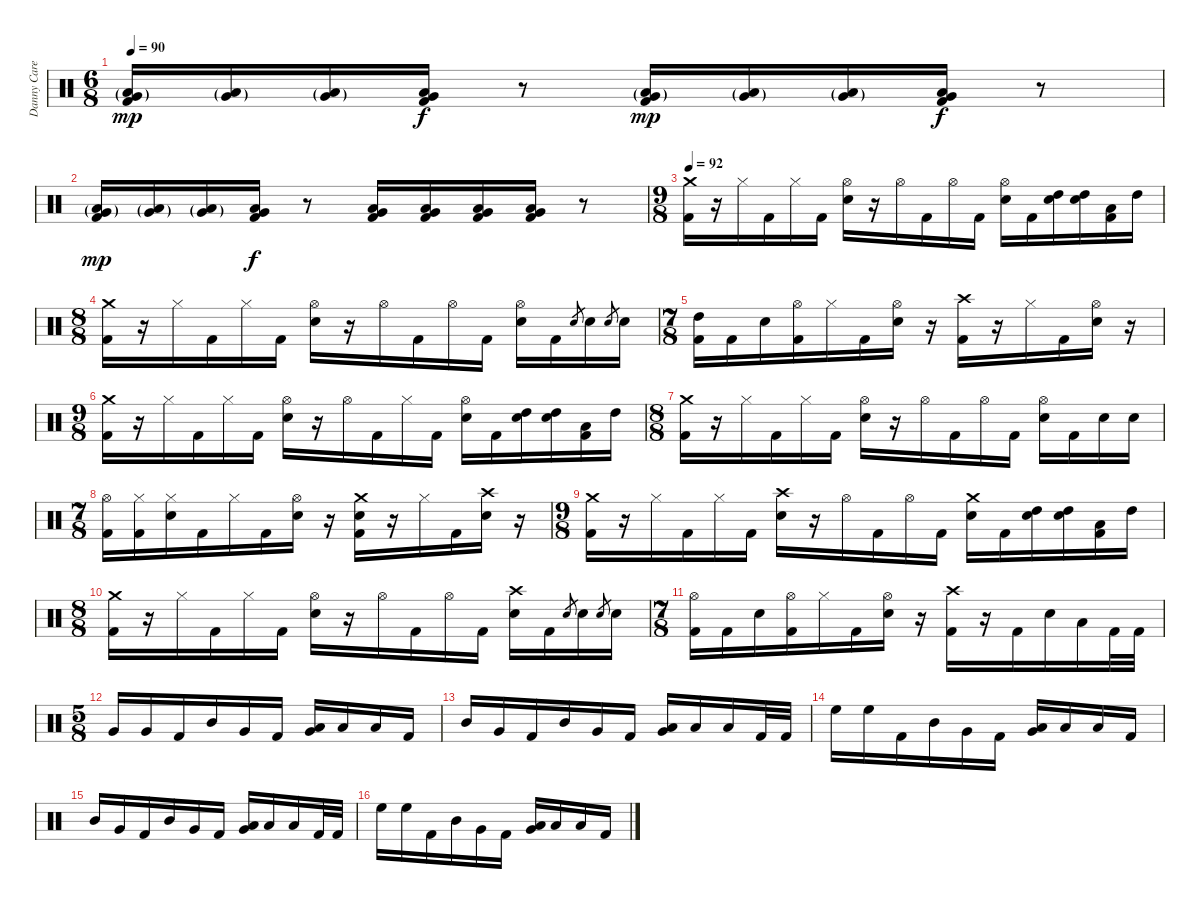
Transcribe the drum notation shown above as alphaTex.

\track ("Danny Carey" "Danny Care") {instrument percussion}
\staff {score}
\articulation defaults
\ts (6 8)
\tempo 90
\clef neutral
\ks c
("Very Low Tom (hit)"{g} "Low Floor Tom (hit)"{g} "Kick (hit) 2").16{dy mp} ("Very Low Tom (hit)"{g} "Low Floor Tom (hit)"{g}).16 ("Very Low Tom (hit)"{g} "Low Floor Tom (hit)"{g}).16 ("Very Low Tom (hit)" "Low Floor Tom (hit)" "Kick (hit) 2").16{dy f} r.8 ("Very Low Tom (hit)"{g} "Low Floor Tom (hit)"{g} "Kick (hit) 2").16{dy mp} ("Very Low Tom (hit)"{g} "Low Floor Tom (hit)"{g}).16 ("Very Low Tom (hit)"{g} "Low Floor Tom (hit)"{g}).16 ("Very Low Tom (hit)" "Low Floor Tom (hit)" "Kick (hit) 2").16{dy f} r.8 |
("Very Low Tom (hit)"{g} "Low Floor Tom (hit)"{g} "Kick (hit) 2").16{dy mp} ("Very Low Tom (hit)"{g} "Low Floor Tom (hit)"{g}).16 ("Very Low Tom (hit)"{g} "Low Floor Tom (hit)"{g}).16 ("Very Low Tom (hit)" "Low Floor Tom (hit)" "Kick (hit) 2").16{dy f} r.8{volume 16} ("Very Low Tom (hit)" "Low Floor Tom (hit)" "Kick (hit) 2").16 ("Very Low Tom (hit)" "Low Floor Tom (hit)" "Kick (hit) 2").16 ("Very Low Tom (hit)" "Low Floor Tom (hit)" "Kick (hit) 2").16 ("Very Low Tom (hit)" "Low Floor Tom (hit)" "Kick (hit) 2").16 r.8 |
\ts (9 8)
\tempo 88
\tempo 90
\tempo 92
("Crash medium (hit)" "Kick (hit) 2").16 r.16 "Hi-Hat (closed)".16 "Kick (hit) 2".16 "Hi-Hat (closed)".16 "Kick (hit) 2".16 ("Hi-Hat (open)" "Electric Snare (hit)").16 r.16 "Hi-Hat (open)".16 "Kick (hit) 2".16 "Hi-Hat (open)".16 "Kick (hit) 2".16 ("Hi-Hat (open)" "Electric Snare (hit)").16 "Kick (hit) 2".16 ("High Tom (hit)" "Electric Snare (hit)").16 ("High Tom (hit)" "Electric Snare (hit)").16 ("Low Tom (hit)" "Kick (hit) 2").16 "High Tom (hit)".16 |
\ts (8 8)
("Crash medium (hit)" "Kick (hit) 2").16 r.16 "Hi-Hat (closed)".16 "Kick (hit) 2".16 "Hi-Hat (closed)".16 "Kick (hit) 2".16 ("Hi-Hat (open)" "Electric Snare (hit)").16 r.16 "Hi-Hat (open)".16 "Kick (hit) 2".16 "Hi-Hat (open)".16 "Kick (hit) 2".16 ("Hi-Hat (open)" "Electric Snare (hit)").16 "Kick (hit) 2".16 "Electric Snare (hit)".8{gr} "Electric Snare (hit)".16 "Electric Snare (hit)".8{gr} "Electric Snare (hit)".16 |
\ts (7 8)
("High Tom (hit)" "Kick (hit) 2").16 "Kick (hit) 2".16 "Electric Snare (hit)".16 ("Hi-Hat (open)" "Kick (hit) 2").16 "Hi-Hat (closed)".16 "Kick (hit) 2".16 ("Hi-Hat (open)" "Electric Snare (hit)").16 r.16 ("Crash high (hit)" "Kick (hit) 2").16 r.16 "Hi-Hat (closed)".16 "Kick (hit) 2".16 ("Hi-Hat (open)" "Electric Snare (hit)").16 r.16 |
\ts (9 8)
("Crash medium (hit)" "Kick (hit) 2").16 r.16 "Hi-Hat (closed)".16 "Kick (hit) 2".16 "Hi-Hat (closed)".16 "Kick (hit) 2".16 ("Hi-Hat (open)" "Electric Snare (hit)").16 r.16 "Hi-Hat (open)".16 "Kick (hit) 2".16 "Hi-Hat (closed)".16 "Kick (hit) 2".16 ("Hi-Hat (open)" "Electric Snare (hit)").16 "Kick (hit) 2".16 ("High Tom (hit)" "Electric Snare (hit)").16 ("High Tom (hit)" "Electric Snare (hit)").16 ("Low Tom (hit)" "Kick (hit) 2").16 "High Tom (hit)".16 |
\ts (8 8)
("Crash medium (hit)" "Kick (hit) 2").16 r.16 "Hi-Hat (closed)".16 "Kick (hit) 2".16 "Hi-Hat (closed)".16 "Kick (hit) 2".16 ("Hi-Hat (open)" "Electric Snare (hit)").16 r.16 "Hi-Hat (open)".16 "Kick (hit) 2".16 "Hi-Hat (open)".16 "Kick (hit) 2".16 ("Hi-Hat (open)" "Electric Snare (hit)").16 "Kick (hit) 2".16 "Electric Snare (hit)".16 "Electric Snare (hit)".16 |
\ts (7 8)
("Hi-Hat (open)" "Kick (hit) 2").16 ("Hi-Hat (closed)" "Kick (hit) 2").16 ("Hi-Hat (closed)" "Electric Snare (hit)").16 "Kick (hit) 2".16 "Hi-Hat (closed)".16 "Kick (hit) 2".16 ("Hi-Hat (open)" "Electric Snare (hit)").16 r.16 ("Crash medium (hit)" "Electric Snare (hit)" "Kick (hit) 2").16 r.16 "Hi-Hat (closed)".16 "Kick (hit) 2".16 ("Crash high (hit)" "Electric Snare (hit)").16 r.16 |
\ts (9 8)
("Crash medium (hit)" "Kick (hit) 2").16 r.16 "Hi-Hat (closed)".16 "Kick (hit) 2".16 "Hi-Hat (closed)".16 "Kick (hit) 2".16 ("Crash high (hit)" "Electric Snare (hit)").16 r.16 "Hi-Hat (open)".16 "Kick (hit) 2".16 "Hi-Hat (open)".16 "Kick (hit) 2".16 ("Crash medium (hit)" "Electric Snare (hit)").16 "Kick (hit) 2".16 ("High Tom (hit)" "Electric Snare (hit)").16 ("High Tom (hit)" "Electric Snare (hit)").16 ("Low Tom (hit)" "Kick (hit) 2").16 "High Tom (hit)".16 |
\ts (8 8)
("Crash medium (hit)" "Kick (hit) 2").16 r.16 "Hi-Hat (closed)".16 "Kick (hit) 2".16 "Hi-Hat (closed)".16 "Kick (hit) 2".16 ("Hi-Hat (open)" "Electric Snare (hit)").16 r.16 "Hi-Hat (open)".16 "Kick (hit) 2".16 "Hi-Hat (open)".16 "Kick (hit) 2".16 ("Crash high (hit)" "Electric Snare (hit)").16 "Kick (hit) 2".16 "Electric Snare (hit)".8{gr} "Electric Snare (hit)".16 "Electric Snare (hit)".8{gr} "Electric Snare (hit)".16 |
\ts (7 8)
("Hi-Hat (open)" "Kick (hit) 2").16 "Kick (hit) 2".16 "Electric Snare (hit)".16 ("Hi-Hat (open)" "Kick (hit) 2").16 "Hi-Hat (closed)".16 "Kick (hit) 2".16 ("Hi-Hat (open)" "Electric Snare (hit)").16 r.16 ("Crash high (hit)" "Kick (hit) 2").16 r.16 "Kick (hit) 2".16 "Electric Snare (hit)".16 "Low Floor Tom (hit)".16 "Kick (hit) 2".32 "Kick (hit) 2".32 |
\ts (5 8)
"Very Low Tom (hit)".16 "Very Low Tom (hit)".16 "Kick (hit) 2".16 "Mid Tom (hit)".16 "Very Low Tom (hit)".16 "Kick (hit) 2".16 ("Low Floor Tom (hit)" "Very Low Tom (hit)").16 "Low Floor Tom (hit)".16 "Low Floor Tom (hit)".16 "Kick (hit) 2".16 |
"Mid Tom (hit)".16 "Very Low Tom (hit)".16 "Kick (hit) 2".16 "Mid Tom (hit)".16 "Very Low Tom (hit)".16 "Kick (hit) 2".16 ("Low Floor Tom (hit)" "Very Low Tom (hit)").16 "Low Floor Tom (hit)".16 "Low Floor Tom (hit)".16 "Kick (hit) 2".32 "Kick (hit) 2".32 |
"High Floor Tom (hit)".16 "High Floor Tom (hit)".16 "Kick (hit) 2".16 "Mid Tom (hit)".16 "Very Low Tom (hit)".16 "Kick (hit) 2".16 ("Low Floor Tom (hit)" "Very Low Tom (hit)").16 "Low Floor Tom (hit)".16 "Low Floor Tom (hit)".16 "Kick (hit) 2".16 |
"Mid Tom (hit)".16 "Very Low Tom (hit)".16 "Kick (hit) 2".16 "Mid Tom (hit)".16 "Very Low Tom (hit)".16 "Kick (hit) 2".16 ("Low Floor Tom (hit)" "Very Low Tom (hit)").16 "Low Floor Tom (hit)".16 "Low Floor Tom (hit)".16 "Kick (hit) 2".32 "Kick (hit) 2".32 |
"High Floor Tom (hit)".16 "High Floor Tom (hit)".16 "Kick (hit) 2".16 "Mid Tom (hit)".16 "Very Low Tom (hit)".16 "Kick (hit) 2".16 ("Low Floor Tom (hit)" "Very Low Tom (hit)").16 "Low Floor Tom (hit)".16 "Low Floor Tom (hit)".16 "Kick (hit) 2".16
